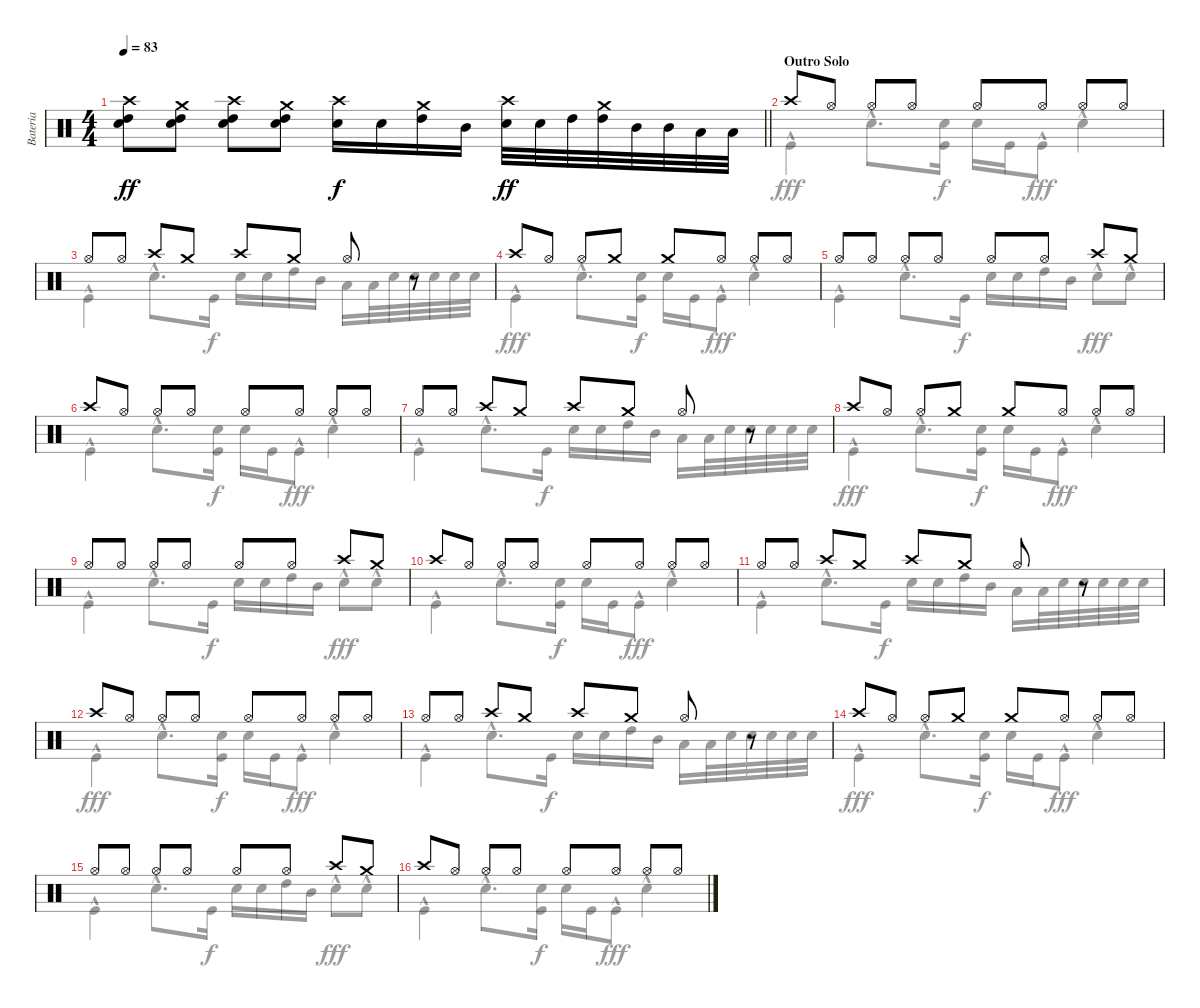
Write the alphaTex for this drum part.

\track ("Bateria" "Bateria") {instrument percussion}
\staff {score}
\articulation defaults
\voice
\ts (4 4)
\tempo 83
\clef neutral
\barLineRight lightlight
\ks c
("Crash high (hit)" "High Tom (hit)" "Snare (hit) 2").8{dy ff} ("Crash medium (hit)" "High Tom (hit)" "Snare (hit) 2").8 ("Crash high (hit)" "High Tom (hit)" "Snare (hit) 2").8 ("Crash medium (hit)" "High Tom (hit)" "Snare (hit) 2").8 ("Crash high (hit)" "Snare (hit) 2").16{dy f} "Snare (hit) 2".16 ("Crash medium (hit)" "High Tom (hit)").16 "Mid Tom (hit)".16 ("Crash high (hit)" "Snare (hit) 2").32{dy ff} "Snare (hit) 2".32 "High Tom (hit)".32 ("Crash medium (hit)" "High Tom (hit)").32 "Mid Tom (hit)".32 "Mid Tom (hit)".32 "Low Tom (hit)".32 "Low Tom (hit)".32 |
\section ("" "Outro Solo")
"Crash high (hit)".8 "Hi-Hat (open)".8 "Hi-Hat (open)".8 "Hi-Hat (open)".8 "Hi-Hat (open)".8 "Hi-Hat (open)".8 "Hi-Hat (open)".8 "Hi-Hat (open)".8 |
"Hi-Hat (open)".8 "Hi-Hat (open)".8 "Crash high (hit)".8 "Crash medium (hit)".8 "Crash high (hit)".8 "Crash medium (hit)".8 "Hi-Hat (open)".8 r.8 |
"Crash high (hit)".8 "Hi-Hat (open)".8 "Hi-Hat (open)".8 "Crash medium (hit)".8 "Crash medium (hit)".8 "Hi-Hat (open)".8 "Hi-Hat (open)".8 "Hi-Hat (open)".8 |
"Hi-Hat (open)".8 "Hi-Hat (open)".8 "Hi-Hat (open)".8 "Hi-Hat (open)".8 "Hi-Hat (open)".8 "Hi-Hat (open)".8 "Crash high (hit)".8 "Crash medium (hit)".8 |
"Crash high (hit)".8 "Hi-Hat (open)".8 "Hi-Hat (open)".8 "Hi-Hat (open)".8 "Hi-Hat (open)".8 "Hi-Hat (open)".8 "Hi-Hat (open)".8 "Hi-Hat (open)".8 |
"Hi-Hat (open)".8 "Hi-Hat (open)".8 "Crash high (hit)".8 "Crash medium (hit)".8 "Crash high (hit)".8 "Crash medium (hit)".8 "Hi-Hat (open)".8 r.8 |
"Crash high (hit)".8 "Hi-Hat (open)".8 "Hi-Hat (open)".8 "Crash medium (hit)".8 "Crash medium (hit)".8 "Hi-Hat (open)".8 "Hi-Hat (open)".8 "Hi-Hat (open)".8 |
"Hi-Hat (open)".8 "Hi-Hat (open)".8 "Hi-Hat (open)".8 "Hi-Hat (open)".8 "Hi-Hat (open)".8 "Hi-Hat (open)".8 "Crash high (hit)".8 "Crash medium (hit)".8 |
"Crash high (hit)".8 "Hi-Hat (open)".8 "Hi-Hat (open)".8 "Hi-Hat (open)".8 "Hi-Hat (open)".8 "Hi-Hat (open)".8 "Hi-Hat (open)".8 "Hi-Hat (open)".8 |
"Hi-Hat (open)".8 "Hi-Hat (open)".8 "Crash high (hit)".8 "Crash medium (hit)".8 "Crash high (hit)".8 "Crash medium (hit)".8 "Hi-Hat (open)".8 r.8 |
"Crash high (hit)".8 "Hi-Hat (open)".8 "Hi-Hat (open)".8 "Hi-Hat (open)".8 "Hi-Hat (open)".8 "Hi-Hat (open)".8 "Hi-Hat (open)".8 "Hi-Hat (open)".8 |
"Hi-Hat (open)".8 "Hi-Hat (open)".8 "Crash high (hit)".8 "Crash medium (hit)".8 "Crash high (hit)".8 "Crash medium (hit)".8 "Hi-Hat (open)".8 r.8 |
"Crash high (hit)".8 "Hi-Hat (open)".8 "Hi-Hat (open)".8 "Crash medium (hit)".8 "Crash medium (hit)".8 "Hi-Hat (open)".8 "Hi-Hat (open)".8 "Hi-Hat (open)".8 |
"Hi-Hat (open)".8 "Hi-Hat (open)".8 "Hi-Hat (open)".8 "Hi-Hat (open)".8 "Hi-Hat (open)".8 "Hi-Hat (open)".8 "Crash high (hit)".8 "Crash medium (hit)".8 |
"Crash high (hit)".8 "Hi-Hat (open)".8 "Hi-Hat (open)".8 "Hi-Hat (open)".8 "Hi-Hat (open)".8 "Hi-Hat (open)".8 "Hi-Hat (open)".8 "Hi-Hat (open)".8
\voice
\clef neutral
\ottava regular
\simile none
\barLineRight lightlight
\ks c
|
"Kick (hit)"{hac}.4{dy fff} "Snare (hit) 2"{hac}.8{d} ("Snare (hit) 2" "Kick (hit)").16{dy f} "Snare (hit) 2".16 "Kick (hit)".16 "Kick (hit)"{hac}.8{dy fff} "Snare (hit) 2"{hac}.4 |
"Kick (hit)"{hac}.4 "Snare (hit) 2"{hac}.8{d} "Kick (hit)".16{dy f} "Snare (hit) 2".16 "Snare (hit) 2".16 "High Tom (hit)".16 "Mid Tom (hit)".16 "Low Tom (hit)".16 "Low Tom (hit)".32 "Snare (hit) 2".32 "Snare (hit) 2".32 "Snare (hit) 2".32 "Snare (hit) 2".32 "Snare (hit) 2".32 |
"Kick (hit)"{hac}.4{dy fff} "Snare (hit) 2"{hac}.8{d} ("Snare (hit) 2" "Kick (hit)").16{dy f} "Snare (hit) 2".16 "Kick (hit)".16 "Kick (hit)"{hac}.8{dy fff} "Snare (hit) 2"{hac}.4 |
"Kick (hit)"{hac}.4 "Snare (hit) 2"{hac}.8{d} "Kick (hit)".16{dy f} "Snare (hit) 2".16 "Snare (hit) 2".16 "High Tom (hit)".16 "Mid Tom (hit)".16 "Snare (hit) 2"{hac}.8{dy fff} "Snare (hit) 2"{hac}.8 |
"Kick (hit)"{hac}.4 "Snare (hit) 2"{hac}.8{d} ("Snare (hit) 2" "Kick (hit)").16{dy f} "Snare (hit) 2".16 "Kick (hit)".16 "Kick (hit)"{hac}.8{dy fff} "Snare (hit) 2"{hac}.4 |
"Kick (hit)"{hac}.4 "Snare (hit) 2"{hac}.8{d} "Kick (hit)".16{dy f} "Snare (hit) 2".16 "Snare (hit) 2".16 "High Tom (hit)".16 "Mid Tom (hit)".16 "Low Tom (hit)".16 "Low Tom (hit)".32 "Snare (hit) 2".32 "Snare (hit) 2".32 "Snare (hit) 2".32 "Snare (hit) 2".32 "Snare (hit) 2".32 |
"Kick (hit)"{hac}.4{dy fff} "Snare (hit) 2"{hac}.8{d} ("Snare (hit) 2" "Kick (hit)").16{dy f} "Snare (hit) 2".16 "Kick (hit)".16 "Kick (hit)"{hac}.8{dy fff} "Snare (hit) 2"{hac}.4 |
"Kick (hit)"{hac}.4 "Snare (hit) 2"{hac}.8{d} "Kick (hit)".16{dy f} "Snare (hit) 2".16 "Snare (hit) 2".16 "High Tom (hit)".16 "Mid Tom (hit)".16 "Snare (hit) 2"{hac}.8{dy fff} "Snare (hit) 2"{hac}.8 |
"Kick (hit)"{hac}.4 "Snare (hit) 2"{hac}.8{d} ("Snare (hit) 2" "Kick (hit)").16{dy f} "Snare (hit) 2".16 "Kick (hit)".16 "Kick (hit)"{hac}.8{dy fff} "Snare (hit) 2"{hac}.4 |
"Kick (hit)"{hac}.4 "Snare (hit) 2"{hac}.8{d} "Kick (hit)".16{dy f} "Snare (hit) 2".16 "Snare (hit) 2".16 "High Tom (hit)".16 "Mid Tom (hit)".16 "Low Tom (hit)".16 "Low Tom (hit)".32 "Snare (hit) 2".32 "Snare (hit) 2".32 "Snare (hit) 2".32 "Snare (hit) 2".32 "Snare (hit) 2".32 |
"Kick (hit)"{hac}.4{dy fff} "Snare (hit) 2"{hac}.8{d} ("Snare (hit) 2" "Kick (hit)").16{dy f} "Snare (hit) 2".16 "Kick (hit)".16 "Kick (hit)"{hac}.8{dy fff} "Snare (hit) 2"{hac}.4 |
"Kick (hit)"{hac}.4 "Snare (hit) 2"{hac}.8{d} "Kick (hit)".16{dy f} "Snare (hit) 2".16 "Snare (hit) 2".16 "High Tom (hit)".16 "Mid Tom (hit)".16 "Low Tom (hit)".16 "Low Tom (hit)".32 "Snare (hit) 2".32 "Snare (hit) 2".32 "Snare (hit) 2".32 "Snare (hit) 2".32 "Snare (hit) 2".32 |
"Kick (hit)"{hac}.4{dy fff} "Snare (hit) 2"{hac}.8{d} ("Snare (hit) 2" "Kick (hit)").16{dy f} "Snare (hit) 2".16 "Kick (hit)".16 "Kick (hit)"{hac}.8{dy fff} "Snare (hit) 2"{hac}.4 |
"Kick (hit)"{hac}.4 "Snare (hit) 2"{hac}.8{d} "Kick (hit)".16{dy f} "Snare (hit) 2".16 "Snare (hit) 2".16 "High Tom (hit)".16 "Mid Tom (hit)".16 "Snare (hit) 2"{hac}.8{dy fff} "Snare (hit) 2"{hac}.8 |
"Kick (hit)"{hac}.4 "Snare (hit) 2"{hac}.8{d} ("Snare (hit) 2" "Kick (hit)").16{dy f} "Snare (hit) 2".16 "Kick (hit)".16 "Kick (hit)"{hac}.8{dy fff} "Snare (hit) 2"{hac}.4
